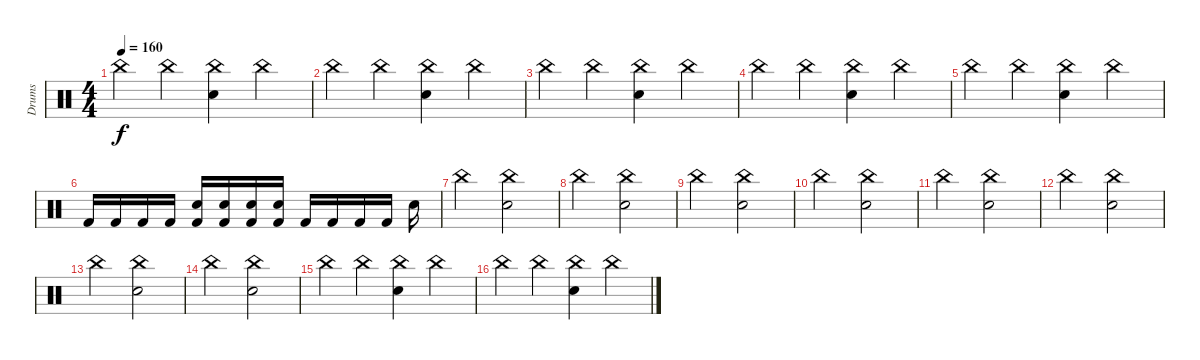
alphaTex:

\track ("Drums" "Drums") {instrument percussion}
\staff {score}
\articulation defaults
\ts (4 4)
\tempo 160
\clef neutral
\ks c "China (hit)".4{dy f} "China (hit)".4
("China (hit)" "Electric Snare (hit)").4 "China (hit)".4 |
"China (hit)".4 "China (hit)".4 ("China (hit)" "Electric Snare (hit)").4 "China (hit)".4 |
"China (hit)".4 "China (hit)".4 ("China (hit)" "Electric Snare (hit)").4 "China (hit)".4 |
"China (hit)".4 "China (hit)".4 ("China (hit)" "Electric Snare (hit)").4 "China (hit)".4 |
"China (hit)".4 "China (hit)".4 ("China (hit)" "Electric Snare (hit)").4 "China (hit)".4 |
"Kick (hit) 2".16 "Kick (hit) 2".16 "Kick (hit) 2".16 "Kick (hit) 2".16 ("Kick (hit) 2" "Electric Snare (hit)").16 ("Kick (hit) 2" "Electric Snare (hit)").16 ("Kick (hit) 2" "Electric Snare (hit)").16 ("Kick (hit) 2" "Electric Snare (hit)").16 "Kick (hit) 2".16 "Kick (hit) 2".16 "Kick (hit) 2".16 "Kick (hit) 2".16 "Electric Snare (hit)".16 |
"China (hit)".2 ("China (hit)" "Electric Snare (hit)").2 |
"China (hit)".2 ("China (hit)" "Electric Snare (hit)").2 |
"China (hit)".2 ("China (hit)" "Electric Snare (hit)").2 |
"China (hit)".2 ("China (hit)" "Electric Snare (hit)").2 |
"China (hit)".2 ("China (hit)" "Electric Snare (hit)").2 |
"China (hit)".2 ("China (hit)" "Electric Snare (hit)").2 |
"China (hit)".2 ("China (hit)" "Electric Snare (hit)").2 |
"China (hit)".2 ("China (hit)" "Electric Snare (hit)").2 |
"China (hit)".4 "China (hit)".4 ("China (hit)" "Electric Snare (hit)").4 "China (hit)".4 |
"China (hit)".4 "China (hit)".4 ("China (hit)" "Electric Snare (hit)").4 "China (hit)".4
